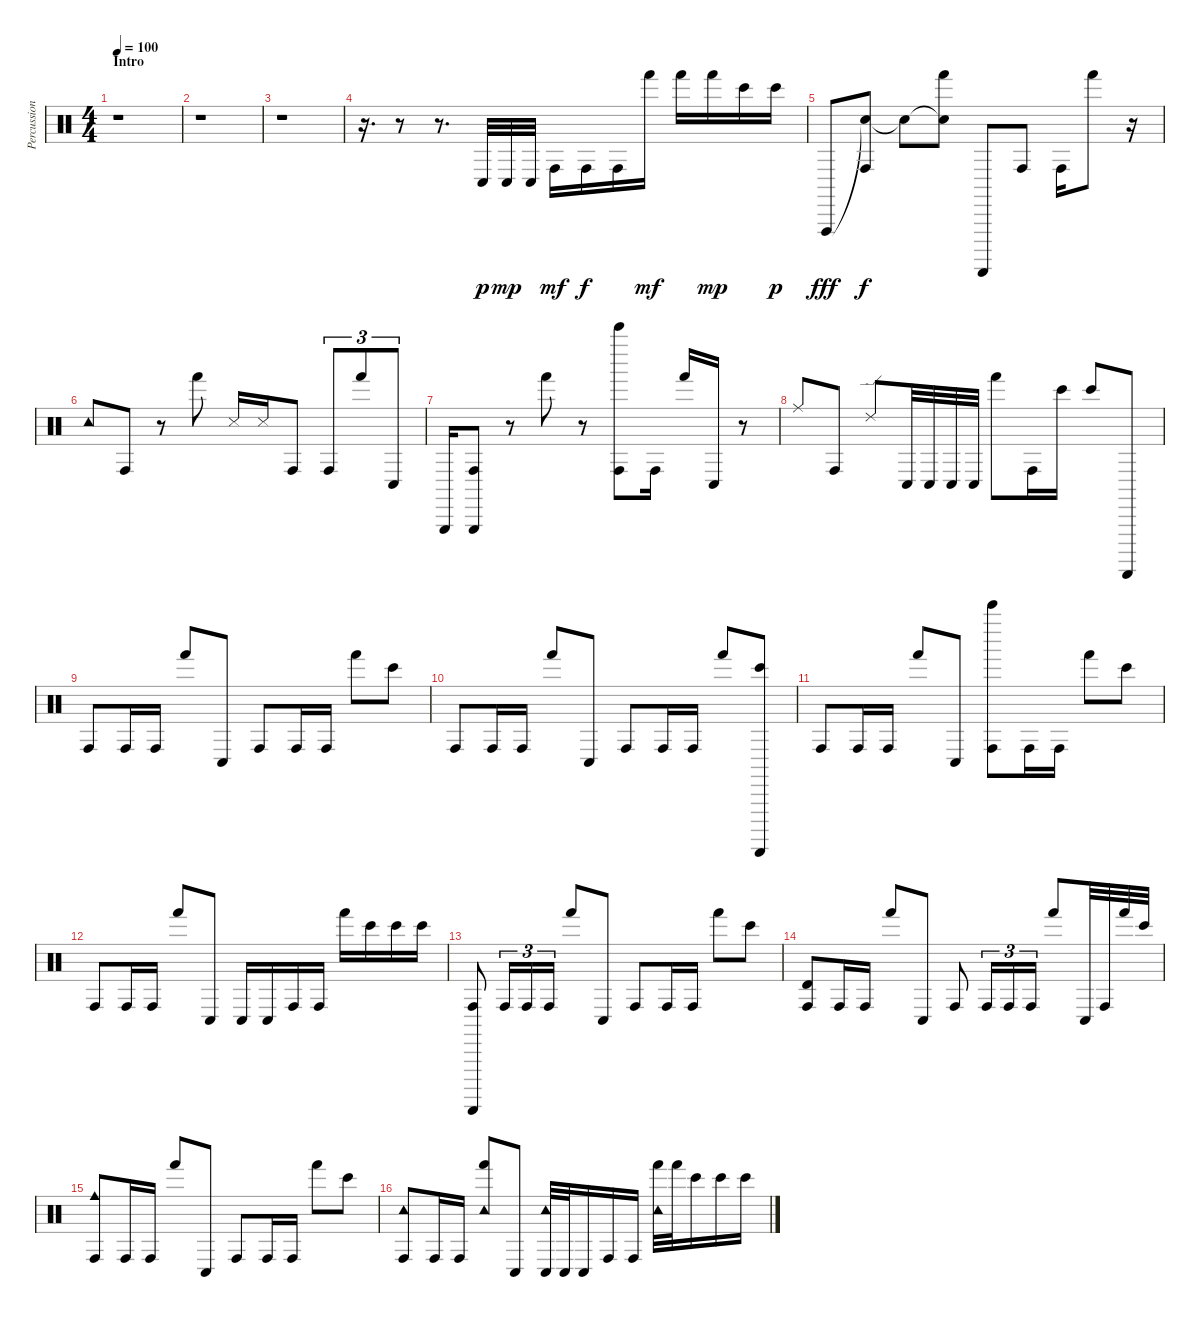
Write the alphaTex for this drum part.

\track ("Percussion" "Percussion") {instrument percussion}
\staff {score}
\articulation defaults
\ts (4 4)
\section ("" "Intro")
\tempo 100
\clef neutral
\ks c
r.1{dy p} |
r.1 |
r.1 |
r.16{d} r.8 r.8{d} "Conga low (hit)".32 "Conga low (hit)".32{dy mp} "Conga low (hit)".32 "Conga high (hit)".16{dy mf} "Conga high (hit)".16{dy f} "Conga high (hit)".16 "Hand (hit)".16{dy mf} "Hand (hit)".16 "Hand (hit)".16{dy mp} "Bongo High (hit)".16 "Bongo High (hit)".16{dy p} |
"Vibraslap (hit)".8{dy fff} ("Snare (hit)"{t} "Conga high (hit)").8{dy f} "Snare (hit)"{t}.8 ("Snare (hit)"{t} "Hand (hit)").8 "Guiro (scrap-return)".8 "Conga high (hit)".8 "Conga high (hit)".16 "Hand (hit)".8 r.16 |
"Tambourine (hit)".8 "Conga high (hit)".8 r.8 "Hand (hit)".8 "Snare (side stick) 3".16 "Metronome (hit)".16 "Conga high (hit)".8 "Conga high (hit)".8{tu (3 2)} "Hand (hit)".8{tu (3 2)} "Conga low (hit)".8{tu (3 2)} |
"Triangle (hit)".16 ("Conga high (hit)" "Triangle (hit)").8 r.8 "Hand (hit)".8 r.8 ("Bell Tree (hit)" "Conga high (hit)").8 "Conga high (hit)".16 "Hand (hit)".16 "Conga low (hit)".16 r.8 |
"Ride (middle)".8 "Conga high (hit)".8 "Ride (edge) 2".8 "Conga low (hit)".32 "Conga low (hit)".32 "Conga low (hit)".32 "Conga low (hit)".32 "Hand (hit)".8 "Conga high (hit)".16 "Bongo High (hit)".16 "Bongo High (hit)".8 "Guiro (scrap-return)".8 |
"Conga high (hit)".8 "Conga high (hit)".16 "Conga high (hit)".16 "Hand (hit)".8 "Conga low (hit)".8 "Conga high (hit)".8 "Conga high (hit)".16 "Conga high (hit)".16 "Hand (hit)".8 "Bongo High (hit)".8 |
"Conga high (hit)".8 "Conga high (hit)".16 "Conga high (hit)".16 "Hand (hit)".8 "Conga low (hit)".8 "Conga high (hit)".8 "Conga high (hit)".16 "Conga high (hit)".16 "Hand (hit)".8 ("Guiro (scrap-return)" "Bongo High (hit)").8 |
"Conga high (hit)".8 "Conga high (hit)".16 "Conga high (hit)".16 "Hand (hit)".8 "Conga low (hit)".8 ("Bell Tree (hit)" "Conga high (hit)").8 "Conga high (hit)".16 "Conga high (hit)".16 "Hand (hit)".8 "Bongo High (hit)".8 |
"Conga high (hit)".8 "Conga high (hit)".16 "Conga high (hit)".16 "Hand (hit)".8 "Conga low (hit)".8 "Conga low (hit)".16 "Conga low (hit)".16 "Conga high (hit)".16 "Conga high (hit)".16 "Hand (hit)".16 "Bongo High (hit)".16 "Bongo High (hit)".16 "Bongo High (hit)".16 |
("Guiro (scrap-return)" "Conga high (hit)").8 "Conga high (hit)".16{tu (3 2)} "Conga high (hit)".16{tu (3 2)} "Conga high (hit)".16{tu (3 2)} "Hand (hit)".8 "Conga low (hit)".8 "Conga high (hit)".8 "Conga high (hit)".16 "Conga high (hit)".16 "Hand (hit)".8 "Bongo High (hit)".8 |
("Timbale high (hit)" "Conga high (hit)").8 "Conga high (hit)".16 "Conga high (hit)".16 "Hand (hit)".8 "Conga low (hit)".8 "Conga high (hit)".8 "Conga high (hit)".16{tu (3 2)} "Conga high (hit)".16{tu (3 2)} "Conga high (hit)".16{tu (3 2)} "Hand (hit)".8 "Conga low (hit)".32 "Conga high (hit)".32 "Hand (hit)".32 "Bongo High (hit)".32 |
("Cowbell medium (hit)" "Conga high (hit)").8 "Conga high (hit)".16 "Conga high (hit)".16 "Hand (hit)".8 "Conga low (hit)".8 "Conga high (hit)".8 "Conga high (hit)".16 "Conga high (hit)".16 "Hand (hit)".8 "Bongo High (hit)".8 |
("Tambourine (hit)" "Conga high (hit)").8 "Conga high (hit)".16 "Conga high (hit)".16 ("Tambourine (hit)" "Hand (hit)").8 "Conga low (hit)".8 ("Tambourine (hit)" "Conga low (hit)").32 "Conga low (hit)".32 "Conga low (hit)".16 "Conga high (hit)".16 "Conga high (hit)".16 ("Tambourine (hit)" "Hand (hit)").32 "Hand (hit)".32 "Bongo High (hit)".16 "Bongo High (hit)".16 "Bongo High (hit)".16
